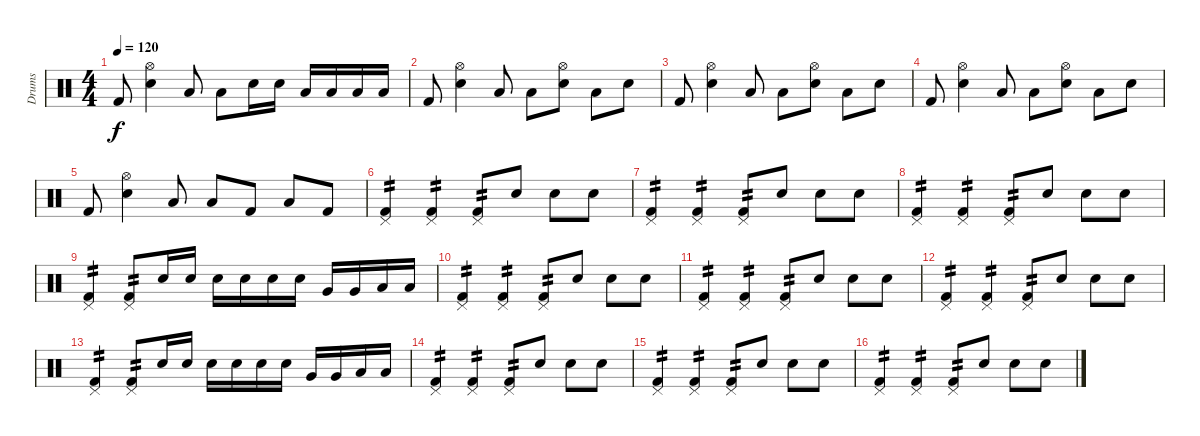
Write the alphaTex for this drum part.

\track ("Drums" "Drums") {instrument percussion}
\staff
\articulation defaults
\ts (4 4)
\tempo 120
\clef neutral
\ks c "Kick (hit) 2".8{dy f}
("Hi-Hat (open)" "Electric Snare (hit)").4 "Low Floor Tom (hit)".8 "Low Floor Tom (hit)".8 "Electric Snare (hit)".16 "Electric Snare (hit)".16 "Low Tom (hit)".16 "Low Tom (hit)".16 "Low Floor Tom (hit)".16 "Low Floor Tom (hit)".16 |
"Kick (hit) 2".8 ("Hi-Hat (open)" "Electric Snare (hit)").4 "Low Floor Tom (hit)".8 "Low Floor Tom (hit)".8 ("Hi-Hat (open)" "Electric Snare (hit)").8 "Low Floor Tom (hit)".8 "Electric Snare (hit)".8 |
"Kick (hit) 2".8 ("Hi-Hat (open)" "Electric Snare (hit)").4 "Low Floor Tom (hit)".8 "Low Floor Tom (hit)".8 ("Hi-Hat (open)" "Electric Snare (hit)").8 "Low Floor Tom (hit)".8 "Electric Snare (hit)".8 |
"Kick (hit) 2".8 ("Hi-Hat (open)" "Electric Snare (hit)").4 "Low Floor Tom (hit)".8 "Low Floor Tom (hit)".8 ("Hi-Hat (open)" "Electric Snare (hit)").8 "Low Floor Tom (hit)".8 "Electric Snare (hit)".8 |
"Kick (hit) 2".8 ("Hi-Hat (open)" "Electric Snare (hit)").4 "Low Floor Tom (hit)".8 "Low Floor Tom (hit)".8 "Kick (hit) 2".8 "Low Floor Tom (hit)".8 "Kick (hit) 2".8 |
("Pedal Hi-Hat (hit)" "Kick (hit) 2").4{tp 2} ("Pedal Hi-Hat (hit)" "Kick (hit) 2").4{tp 2} ("Pedal Hi-Hat (hit)" "Kick (hit) 2").8{tp 2} "Electric Snare (hit)".8 "Electric Snare (hit)".8 "Electric Snare (hit)".8 |
("Pedal Hi-Hat (hit)" "Kick (hit) 2").4{tp 2} ("Pedal Hi-Hat (hit)" "Kick (hit) 2").4{tp 2} ("Pedal Hi-Hat (hit)" "Kick (hit) 2").8{tp 2} "Electric Snare (hit)".8 "Electric Snare (hit)".8 "Electric Snare (hit)".8 |
("Pedal Hi-Hat (hit)" "Kick (hit) 2").4{tp 2} ("Pedal Hi-Hat (hit)" "Kick (hit) 2").4{tp 2} ("Pedal Hi-Hat (hit)" "Kick (hit) 2").8{tp 2} "Electric Snare (hit)".8 "Electric Snare (hit)".8 "Electric Snare (hit)".8 |
("Pedal Hi-Hat (hit)" "Kick (hit) 2").4{tp 2} ("Pedal Hi-Hat (hit)" "Kick (hit) 2").8{tp 2} "Electric Snare (hit)".16 "Electric Snare (hit)".16 "Electric Snare (hit)".16 "Electric Snare (hit)".16 "Electric Snare (hit)".16 "Electric Snare (hit)".16 "Very Low Tom (hit)".16 "Very Low Tom (hit)".16 "Low Floor Tom (hit)".16 "Low Floor Tom (hit)".16 |
("Pedal Hi-Hat (hit)" "Kick (hit) 2").4{tp 2} ("Pedal Hi-Hat (hit)" "Kick (hit) 2").4{tp 2} ("Pedal Hi-Hat (hit)" "Kick (hit) 2").8{tp 2} "Electric Snare (hit)".8 "Electric Snare (hit)".8 "Electric Snare (hit)".8 |
("Pedal Hi-Hat (hit)" "Kick (hit) 2").4{tp 2} ("Pedal Hi-Hat (hit)" "Kick (hit) 2").4{tp 2} ("Pedal Hi-Hat (hit)" "Kick (hit) 2").8{tp 2} "Electric Snare (hit)".8 "Electric Snare (hit)".8 "Electric Snare (hit)".8 |
("Pedal Hi-Hat (hit)" "Kick (hit) 2").4{tp 2} ("Pedal Hi-Hat (hit)" "Kick (hit) 2").4{tp 2} ("Pedal Hi-Hat (hit)" "Kick (hit) 2").8{tp 2} "Electric Snare (hit)".8 "Electric Snare (hit)".8 "Electric Snare (hit)".8 |
("Pedal Hi-Hat (hit)" "Kick (hit) 2").4{tp 2} ("Pedal Hi-Hat (hit)" "Kick (hit) 2").8{tp 2} "Electric Snare (hit)".16 "Electric Snare (hit)".16 "Electric Snare (hit)".16 "Electric Snare (hit)".16 "Electric Snare (hit)".16 "Electric Snare (hit)".16 "Very Low Tom (hit)".16 "Very Low Tom (hit)".16 "Low Floor Tom (hit)".16 "Low Floor Tom (hit)".16 |
("Pedal Hi-Hat (hit)" "Kick (hit) 2").4{tp 2} ("Pedal Hi-Hat (hit)" "Kick (hit) 2").4{tp 2} ("Pedal Hi-Hat (hit)" "Kick (hit) 2").8{tp 2} "Electric Snare (hit)".8 "Electric Snare (hit)".8 "Electric Snare (hit)".8 |
("Pedal Hi-Hat (hit)" "Kick (hit) 2").4{tp 2} ("Pedal Hi-Hat (hit)" "Kick (hit) 2").4{tp 2} ("Pedal Hi-Hat (hit)" "Kick (hit) 2").8{tp 2} "Electric Snare (hit)".8 "Electric Snare (hit)".8 "Electric Snare (hit)".8 |
("Pedal Hi-Hat (hit)" "Kick (hit) 2").4{tp 2} ("Pedal Hi-Hat (hit)" "Kick (hit) 2").4{tp 2} ("Pedal Hi-Hat (hit)" "Kick (hit) 2").8{tp 2} "Electric Snare (hit)".8 "Electric Snare (hit)".8 "Electric Snare (hit)".8
